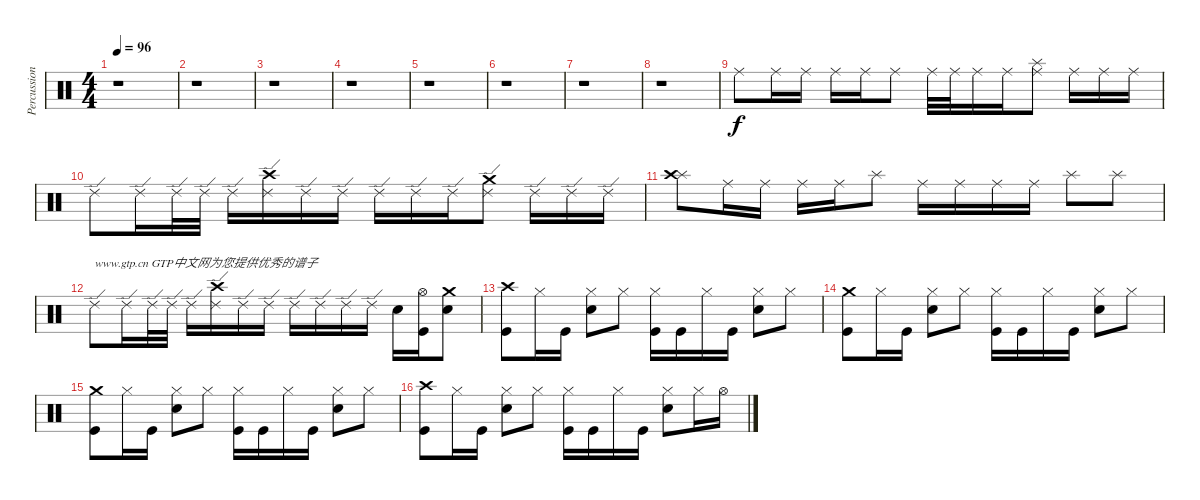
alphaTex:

\track ("Percussion" "Percussion") {instrument percussion}
\staff {score}
\articulation defaults
\ts (4 4)
\tempo 96
\clef neutral
\ks c
r.1{dy f} |
r.1 |
r.1 |
r.1 |
r.1 |
r.1 |
r.1 |
r.1 |
"Ride (middle)".8 "Ride (middle)".16 "Ride (middle)".16 "Ride (middle)".16 "Ride (middle)".16 "Ride (middle)".8 "Ride (middle)".32 "Ride (middle)".32 "Ride (middle)".16 "Ride (middle)".16 ("Ride (middle)" "Splash (hit)").8 "Ride (middle)".16 "Ride (middle)".16 "Ride (middle)".16 |
"Ride (edge) 2".8 "Ride (edge) 2".16 "Ride (edge) 2".32 "Ride (edge) 2".32 "Ride (edge) 2".16 ("Ride (edge) 2" "Crash high (hit)").16 "Ride (edge) 2".16 "Ride (edge) 2".16 "Ride (edge) 2".16 "Ride (edge) 2".16 "Ride (edge) 2".16 ("Ride (edge) 2" "Crash medium (hit)").8 "Ride (edge) 2".16 "Ride (edge) 2".16 "Ride (edge) 2".16 |
("Splash (hit)" "Crash high (hit)").8 "Ride (middle)".16 "Ride (middle)".16 "Ride (middle)".16 "Ride (middle)".16 "Splash (hit)".8 "Ride (middle)".16 "Ride (middle)".16 "Ride (middle)".16 "Ride (middle)".16 "Splash (hit)".8 "Splash (hit)".8 |
"Ride (edge) 2".8{txt "www.gtp.cn GTP中文网为您提供优秀的谱子"} "Ride (edge) 2".16 "Ride (edge) 2".32 "Ride (edge) 2".32 "Ride (edge) 2".16 ("Ride (edge) 2" "Crash high (hit)").16 "Ride (edge) 2".16 "Ride (edge) 2".16 "Ride (edge) 2".16 "Ride (edge) 2".16 "Ride (edge) 2".16 "Ride (edge) 2".16 "Electric Snare (hit)".16 ("Hi-Hat (open)" "Kick (hit)").16 ("Snare (hit) 2" "Crash medium (hit)").8 |
("Crash high (hit)" "Kick (hit)").8 "Hi-Hat (closed)".16 "Kick (hit)".16 ("Hi-Hat (closed)" "Snare (hit) 2").8 "Hi-Hat (closed)".8 ("Hi-Hat (closed)" "Kick (hit)").16 "Kick (hit)".16 "Hi-Hat (closed)".16 "Kick (hit)".16 ("Hi-Hat (closed)" "Snare (hit) 2").8 "Hi-Hat (closed)".8 |
("Crash medium (hit)" "Kick (hit)").8 "Hi-Hat (closed)".16 "Kick (hit)".16 ("Hi-Hat (closed)" "Snare (hit) 2").8 "Hi-Hat (closed)".8 ("Hi-Hat (closed)" "Kick (hit)").16 "Kick (hit)".16 "Hi-Hat (closed)".16 "Kick (hit)".16 ("Hi-Hat (closed)" "Snare (hit) 2").8 "Hi-Hat (closed)".8 |
("Crash medium (hit)" "Kick (hit)").8 "Hi-Hat (closed)".16 "Kick (hit)".16 ("Hi-Hat (closed)" "Snare (hit) 2").8 "Hi-Hat (closed)".8 ("Hi-Hat (closed)" "Kick (hit)").16 "Kick (hit)".16 "Hi-Hat (closed)".16 "Kick (hit)".16 ("Hi-Hat (closed)" "Snare (hit) 2").8 "Hi-Hat (closed)".8 |
("Crash high (hit)" "Kick (hit)").8 "Hi-Hat (closed)".16 "Kick (hit)".16 ("Hi-Hat (closed)" "Snare (hit) 2").8 "Hi-Hat (closed)".8 ("Hi-Hat (closed)" "Kick (hit)").16 "Kick (hit)".16 "Hi-Hat (closed)".16 "Kick (hit)".16 ("Hi-Hat (closed)" "Snare (hit) 2").8 "Hi-Hat (closed)".16 "Hi-Hat (open)".16
